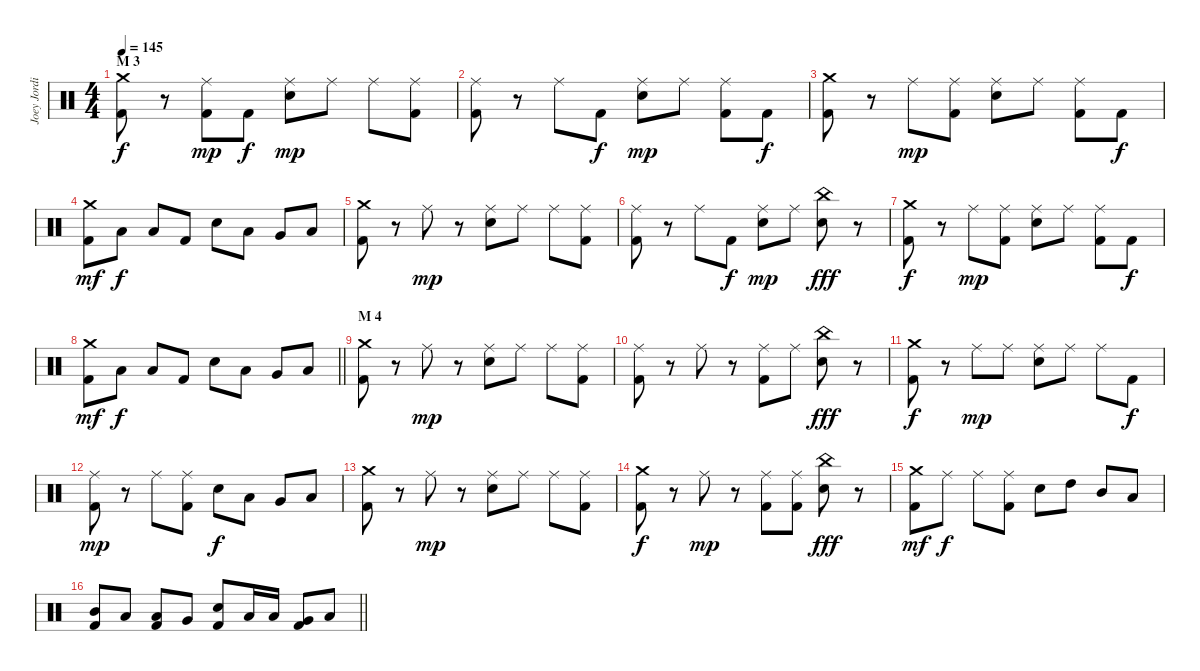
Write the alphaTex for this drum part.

\track ("Joey Jordison" "Joey Jordi") {instrument percussion}
\staff {score}
\articulation defaults
\ts (4 4)
\section ("" "M 3")
\tempo 145
\clef neutral
\ks c
("Crash medium (hit)" "Kick (hit) 2").8{dy f} r.8 ("Ride (middle)" "Kick (hit) 2").8{dy mp} "Kick (hit) 2".8{dy f} ("Ride (middle)" "Electric Snare (hit)").8{dy mp} "Ride (middle)".8 "Ride (middle)".8 ("Ride (middle)" "Kick (hit) 2").8 |
("Ride (middle)" "Kick (hit) 2").8 r.8 "Ride (middle)".8 "Kick (hit) 2".8{dy f} ("Ride (middle)" "Electric Snare (hit)").8{dy mp} "Ride (middle)".8 ("Ride (middle)" "Kick (hit) 2").8 "Kick (hit) 2".8{dy f} |
("Crash medium (hit)" "Kick (hit) 2").8 r.8 "Ride (middle)".8{dy mp} ("Ride (middle)" "Kick (hit) 2").8 ("Ride (middle)" "Electric Snare (hit)").8 "Ride (middle)".8 ("Ride (middle)" "Kick (hit) 2").8 "Kick (hit) 2".8{dy f} |
("Crash medium (hit)" "Kick (hit) 2").8{dy mf} "Low Tom (hit)".8{dy f} "Low Tom (hit)".8 "Kick (hit) 2".8 "Electric Snare (hit)".8 "Low Tom (hit)".8 "Very Low Tom (hit)".8 "Low Floor Tom (hit)".8 |
("Crash medium (hit)" "Kick (hit) 2").8 r.8 "Ride (middle)".8{dy mp} r.8 ("Ride (middle)" "Electric Snare (hit)").8 "Ride (middle)".8 "Ride (middle)".8 ("Ride (middle)" "Kick (hit) 2").8 |
("Ride (middle)" "Kick (hit) 2").8 r.8 "Ride (middle)".8 "Kick (hit) 2".8{dy f} ("Ride (middle)" "Electric Snare (hit)").8{dy mp} "Ride (middle)".8 ("China (hit)" "Electric Snare (hit)").8{dy fff} r.8 |
("Crash medium (hit)" "Kick (hit) 2").8{dy f} r.8 "Ride (middle)".8{dy mp} ("Ride (middle)" "Kick (hit) 2").8 ("Ride (middle)" "Electric Snare (hit)").8 "Ride (middle)".8 ("Ride (middle)" "Kick (hit) 2").8 "Kick (hit) 2".8{dy f} |
\barLineRight lightlight
("Crash medium (hit)" "Kick (hit) 2").8{dy mf} "Low Tom (hit)".8{dy f} "Low Tom (hit)".8 "Kick (hit) 2".8 "Electric Snare (hit)".8 "Low Tom (hit)".8 "Very Low Tom (hit)".8 "Low Floor Tom (hit)".8 |
\section ("" "M 4")
("Crash medium (hit)" "Kick (hit) 2").8 r.8 "Ride (middle)".8{dy mp} r.8 ("Ride (middle)" "Electric Snare (hit)").8 "Ride (middle)".8 "Ride (middle)".8 ("Ride (middle)" "Kick (hit) 2").8 |
("Ride (middle)" "Kick (hit) 2").8 r.8 "Ride (middle)".8 r.8 ("Ride (middle)" "Kick (hit) 2").8 "Ride (middle)".8 ("China (hit)" "Electric Snare (hit)").8{dy fff} r.8 |
("Crash medium (hit)" "Kick (hit) 2").8{dy f} r.8 "Ride (middle)".8{dy mp} "Ride (middle)".8 ("Ride (middle)" "Electric Snare (hit)").8 "Ride (middle)".8 "Ride (middle)".8 "Kick (hit) 2".8{dy f} |
("Ride (middle)" "Kick (hit) 2").8{dy mp} r.8 "Ride (middle)".8 ("Ride (middle)" "Kick (hit) 2").8 "Electric Snare (hit)".8{dy f} "Low Tom (hit)".8 "Very Low Tom (hit)".8 "Low Floor Tom (hit)".8 |
("Crash medium (hit)" "Kick (hit) 2").8 r.8 "Ride (middle)".8{dy mp} r.8 ("Ride (middle)" "Electric Snare (hit)").8 "Ride (middle)".8 "Ride (middle)".8 ("Ride (middle)" "Kick (hit) 2").8 |
("Crash medium (hit)" "Kick (hit) 2").8{dy f} r.8 "Ride (middle)".8{dy mp} r.8 ("Ride (middle)" "Kick (hit) 2").8 ("Ride (middle)" "Kick (hit) 2").8 ("China (hit)" "Electric Snare (hit)").8{dy fff} r.8 |
("Crash medium (hit)" "Kick (hit) 2").8{dy mf} "Ride (middle)".8{dy f} "Ride (middle)".8 ("Ride (middle)" "Kick (hit) 2").8 "Electric Snare (hit)".8 "High Tom (hit)".8 "Mid Tom (hit)".8 "Low Tom (hit)".8 |
\barLineRight lightlight
("Mid Tom (hit)" "Kick (hit) 2").8 "Low Tom (hit)".8 ("Low Tom (hit)" "Kick (hit) 2").8 "Very Low Tom (hit)".8 ("Electric Snare (hit)" "Kick (hit) 2").8 "Low Tom (hit)".16 "Low Tom (hit)".16 ("Very Low Tom (hit)" "Kick (hit) 2").8 "Low Floor Tom (hit)".8
